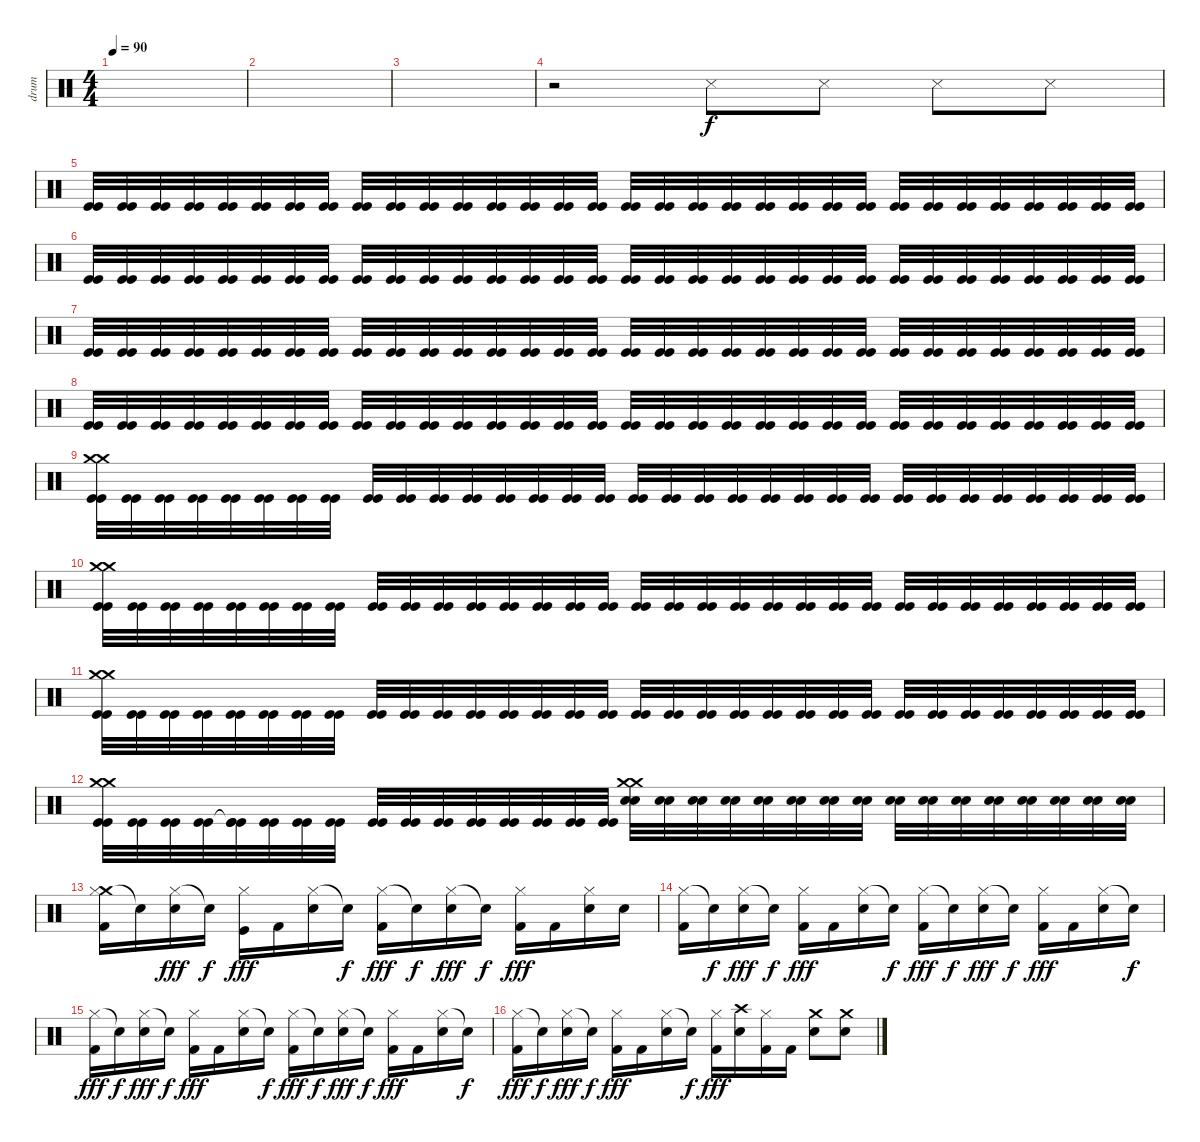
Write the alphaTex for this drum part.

\track ("drum" "drum") {instrument percussion}
\staff {score}
\articulation defaults
\ts (4 4)
\tempo 90
\clef neutral
\ks c
|
|
|
r.2 "Metronome (hit)".8 "Metronome (hit)".8 "Metronome (hit)".8 "Metronome (hit)".8 |
("Kick (hit)" "Kick (hit)").32 ("Kick (hit)" "Kick (hit)").32 ("Kick (hit)" "Kick (hit)").32 ("Kick (hit)" "Kick (hit)").32 ("Kick (hit)" "Kick (hit)").32 ("Kick (hit)" "Kick (hit)").32 ("Kick (hit)" "Kick (hit)").32 ("Kick (hit)" "Kick (hit)").32 ("Kick (hit)" "Kick (hit)").32 ("Kick (hit)" "Kick (hit)").32 ("Kick (hit)" "Kick (hit)").32 ("Kick (hit)" "Kick (hit)").32 ("Kick (hit)" "Kick (hit)").32 ("Kick (hit)" "Kick (hit)").32 ("Kick (hit)" "Kick (hit)").32 ("Kick (hit)" "Kick (hit)").32 ("Kick (hit)" "Kick (hit)").32 ("Kick (hit)" "Kick (hit)").32 ("Kick (hit)" "Kick (hit)").32 ("Kick (hit)" "Kick (hit)").32 ("Kick (hit)" "Kick (hit)").32 ("Kick (hit)" "Kick (hit)").32 ("Kick (hit)" "Kick (hit)").32 ("Kick (hit)" "Kick (hit)").32 ("Kick (hit)" "Kick (hit)").32 ("Kick (hit)" "Kick (hit)").32 ("Kick (hit)" "Kick (hit)").32 ("Kick (hit)" "Kick (hit)").32 ("Kick (hit)" "Kick (hit)").32 ("Kick (hit)" "Kick (hit)").32 ("Kick (hit)" "Kick (hit)").32 ("Kick (hit)" "Kick (hit)").32 |
("Kick (hit)" "Kick (hit)").32 ("Kick (hit)" "Kick (hit)").32 ("Kick (hit)" "Kick (hit)").32 ("Kick (hit)" "Kick (hit)").32 ("Kick (hit)" "Kick (hit)").32 ("Kick (hit)" "Kick (hit)").32 ("Kick (hit)" "Kick (hit)").32 ("Kick (hit)" "Kick (hit)").32 ("Kick (hit)" "Kick (hit)").32 ("Kick (hit)" "Kick (hit)").32 ("Kick (hit)" "Kick (hit)").32 ("Kick (hit)" "Kick (hit)").32 ("Kick (hit)" "Kick (hit)").32 ("Kick (hit)" "Kick (hit)").32 ("Kick (hit)" "Kick (hit)").32 ("Kick (hit)" "Kick (hit)").32 ("Kick (hit)" "Kick (hit)").32 ("Kick (hit)" "Kick (hit)").32 ("Kick (hit)" "Kick (hit)").32 ("Kick (hit)" "Kick (hit)").32 ("Kick (hit)" "Kick (hit)").32 ("Kick (hit)" "Kick (hit)").32 ("Kick (hit)" "Kick (hit)").32 ("Kick (hit)" "Kick (hit)").32 ("Kick (hit)" "Kick (hit)").32 ("Kick (hit)" "Kick (hit)").32 ("Kick (hit)" "Kick (hit)").32 ("Kick (hit)" "Kick (hit)").32 ("Kick (hit)" "Kick (hit)").32 ("Kick (hit)" "Kick (hit)").32 ("Kick (hit)" "Kick (hit)").32 ("Kick (hit)" "Kick (hit)").32 |
("Kick (hit)" "Kick (hit)").32 ("Kick (hit)" "Kick (hit)").32 ("Kick (hit)" "Kick (hit)").32 ("Kick (hit)" "Kick (hit)").32 ("Kick (hit)" "Kick (hit)").32 ("Kick (hit)" "Kick (hit)").32 ("Kick (hit)" "Kick (hit)").32 ("Kick (hit)" "Kick (hit)").32 ("Kick (hit)" "Kick (hit)").32 ("Kick (hit)" "Kick (hit)").32 ("Kick (hit)" "Kick (hit)").32 ("Kick (hit)" "Kick (hit)").32 ("Kick (hit)" "Kick (hit)").32 ("Kick (hit)" "Kick (hit)").32 ("Kick (hit)" "Kick (hit)").32 ("Kick (hit)" "Kick (hit)").32 ("Kick (hit)" "Kick (hit)").32 ("Kick (hit)" "Kick (hit)").32 ("Kick (hit)" "Kick (hit)").32 ("Kick (hit)" "Kick (hit)").32 ("Kick (hit)" "Kick (hit)").32 ("Kick (hit)" "Kick (hit)").32 ("Kick (hit)" "Kick (hit)").32 ("Kick (hit)" "Kick (hit)").32 ("Kick (hit)" "Kick (hit)").32 ("Kick (hit)" "Kick (hit)").32 ("Kick (hit)" "Kick (hit)").32 ("Kick (hit)" "Kick (hit)").32 ("Kick (hit)" "Kick (hit)").32 ("Kick (hit)" "Kick (hit)").32 ("Kick (hit)" "Kick (hit)").32 ("Kick (hit)" "Kick (hit)").32 |
("Kick (hit)" "Kick (hit)").32 ("Kick (hit)" "Kick (hit)").32 ("Kick (hit)" "Kick (hit)").32 ("Kick (hit)" "Kick (hit)").32 ("Kick (hit)" "Kick (hit)").32 ("Kick (hit)" "Kick (hit)").32 ("Kick (hit)" "Kick (hit)").32 ("Kick (hit)" "Kick (hit)").32 ("Kick (hit)" "Kick (hit)").32 ("Kick (hit)" "Kick (hit)").32 ("Kick (hit)" "Kick (hit)").32 ("Kick (hit)" "Kick (hit)").32 ("Kick (hit)" "Kick (hit)").32 ("Kick (hit)" "Kick (hit)").32 ("Kick (hit)" "Kick (hit)").32 ("Kick (hit)" "Kick (hit)").32 ("Kick (hit)" "Kick (hit)").32 ("Kick (hit)" "Kick (hit)").32 ("Kick (hit)" "Kick (hit)").32 ("Kick (hit)" "Kick (hit)").32 ("Kick (hit)" "Kick (hit)").32 ("Kick (hit)" "Kick (hit)").32 ("Kick (hit)" "Kick (hit)").32 ("Kick (hit)" "Kick (hit)").32 ("Kick (hit)" "Kick (hit)").32 ("Kick (hit)" "Kick (hit)").32 ("Kick (hit)" "Kick (hit)").32 ("Kick (hit)" "Kick (hit)").32 ("Kick (hit)" "Kick (hit)").32 ("Kick (hit)" "Kick (hit)").32 ("Kick (hit)" "Kick (hit)").32 ("Kick (hit)" "Kick (hit)").32 |
("Crash medium (hit)" "Crash medium (hit)" "Kick (hit)" "Kick (hit)").32 ("Kick (hit)" "Kick (hit)").32 ("Kick (hit)" "Kick (hit)").32 ("Kick (hit)" "Kick (hit)").32 ("Kick (hit)" "Kick (hit)").32 ("Kick (hit)" "Kick (hit)").32 ("Kick (hit)" "Kick (hit)").32 ("Kick (hit)" "Kick (hit)").32 ("Kick (hit)" "Kick (hit)").32 ("Kick (hit)" "Kick (hit)").32 ("Kick (hit)" "Kick (hit)").32 ("Kick (hit)" "Kick (hit)").32 ("Kick (hit)" "Kick (hit)").32 ("Kick (hit)" "Kick (hit)").32 ("Kick (hit)" "Kick (hit)").32 ("Kick (hit)" "Kick (hit)").32 ("Kick (hit)" "Kick (hit)").32 ("Kick (hit)" "Kick (hit)").32 ("Kick (hit)" "Kick (hit)").32 ("Kick (hit)" "Kick (hit)").32 ("Kick (hit)" "Kick (hit)").32 ("Kick (hit)" "Kick (hit)").32 ("Kick (hit)" "Kick (hit)").32 ("Kick (hit)" "Kick (hit)").32 ("Kick (hit)" "Kick (hit)").32 ("Kick (hit)" "Kick (hit)").32 ("Kick (hit)" "Kick (hit)").32 ("Kick (hit)" "Kick (hit)").32 ("Kick (hit)" "Kick (hit)").32 ("Kick (hit)" "Kick (hit)").32 ("Kick (hit)" "Kick (hit)").32 ("Kick (hit)" "Kick (hit)").32 |
("Crash medium (hit)" "Crash medium (hit)" "Kick (hit)" "Kick (hit)").32 ("Kick (hit)" "Kick (hit)").32 ("Kick (hit)" "Kick (hit)").32 ("Kick (hit)" "Kick (hit)").32 ("Kick (hit)" "Kick (hit)").32 ("Kick (hit)" "Kick (hit)").32 ("Kick (hit)" "Kick (hit)").32 ("Kick (hit)" "Kick (hit)").32 ("Kick (hit)" "Kick (hit)").32 ("Kick (hit)" "Kick (hit)").32 ("Kick (hit)" "Kick (hit)").32 ("Kick (hit)" "Kick (hit)").32 ("Kick (hit)" "Kick (hit)").32 ("Kick (hit)" "Kick (hit)").32 ("Kick (hit)" "Kick (hit)").32 ("Kick (hit)" "Kick (hit)").32 ("Kick (hit)" "Kick (hit)").32 ("Kick (hit)" "Kick (hit)").32 ("Kick (hit)" "Kick (hit)").32 ("Kick (hit)" "Kick (hit)").32 ("Kick (hit)" "Kick (hit)").32 ("Kick (hit)" "Kick (hit)").32 ("Kick (hit)" "Kick (hit)").32 ("Kick (hit)" "Kick (hit)").32 ("Kick (hit)" "Kick (hit)").32 ("Kick (hit)" "Kick (hit)").32 ("Kick (hit)" "Kick (hit)").32 ("Kick (hit)" "Kick (hit)").32 ("Kick (hit)" "Kick (hit)").32 ("Kick (hit)" "Kick (hit)").32 ("Kick (hit)" "Kick (hit)").32 ("Kick (hit)" "Kick (hit)").32 |
("Crash medium (hit)" "Crash medium (hit)" "Kick (hit)" "Kick (hit)").32 ("Kick (hit)" "Kick (hit)").32 ("Kick (hit)" "Kick (hit)").32 ("Kick (hit)" "Kick (hit)").32 ("Kick (hit)" "Kick (hit)").32 ("Kick (hit)" "Kick (hit)").32 ("Kick (hit)" "Kick (hit)").32 ("Kick (hit)" "Kick (hit)").32 ("Kick (hit)" "Kick (hit)").32 ("Kick (hit)" "Kick (hit)").32 ("Kick (hit)" "Kick (hit)").32 ("Kick (hit)" "Kick (hit)").32 ("Kick (hit)" "Kick (hit)").32 ("Kick (hit)" "Kick (hit)").32 ("Kick (hit)" "Kick (hit)").32 ("Kick (hit)" "Kick (hit)").32 ("Kick (hit)" "Kick (hit)").32 ("Kick (hit)" "Kick (hit)").32 ("Kick (hit)" "Kick (hit)").32 ("Kick (hit)" "Kick (hit)").32 ("Kick (hit)" "Kick (hit)").32 ("Kick (hit)" "Kick (hit)").32 ("Kick (hit)" "Kick (hit)").32 ("Kick (hit)" "Kick (hit)").32 ("Kick (hit)" "Kick (hit)").32 ("Kick (hit)" "Kick (hit)").32 ("Kick (hit)" "Kick (hit)").32 ("Kick (hit)" "Kick (hit)").32 ("Kick (hit)" "Kick (hit)").32 ("Kick (hit)" "Kick (hit)").32 ("Kick (hit)" "Kick (hit)").32 ("Kick (hit)" "Kick (hit)").32 |
("Crash medium (hit)" "Crash medium (hit)" "Kick (hit)" "Kick (hit)").32 ("Kick (hit)" "Kick (hit)").32 ("Kick (hit)" "Kick (hit)").32 ("Kick (hit)" "Kick (hit)").32 ("Kick (hit)"{t} "Kick (hit)" "Kick (hit)").32 ("Kick (hit)" "Kick (hit)").32 ("Kick (hit)" "Kick (hit)").32 ("Kick (hit)" "Kick (hit)").32 ("Kick (hit)" "Kick (hit)").32 ("Kick (hit)" "Kick (hit)").32 ("Kick (hit)" "Kick (hit)").32 ("Kick (hit)" "Kick (hit)").32 ("Kick (hit)" "Kick (hit)").32 ("Kick (hit)" "Kick (hit)").32 ("Kick (hit)" "Kick (hit)").32 ("Kick (hit)" "Kick (hit)").32 ("Crash medium (hit)" "Crash medium (hit)" "Electric Snare (hit)" "Electric Snare (hit)").32 ("Electric Snare (hit)" "Electric Snare (hit)").32 ("Electric Snare (hit)" "Electric Snare (hit)").32 ("Electric Snare (hit)" "Electric Snare (hit)").32 ("Electric Snare (hit)" "Electric Snare (hit)").32 ("Electric Snare (hit)" "Electric Snare (hit)").32 ("Electric Snare (hit)" "Electric Snare (hit)").32 ("Electric Snare (hit)" "Electric Snare (hit)").32 ("Electric Snare (hit)" "Electric Snare (hit)").32 ("Electric Snare (hit)" "Electric Snare (hit)").32 ("Electric Snare (hit)" "Electric Snare (hit)").32 ("Electric Snare (hit)" "Electric Snare (hit)").32 ("Electric Snare (hit)" "Electric Snare (hit)").32 ("Electric Snare (hit)" "Electric Snare (hit)").32 ("Electric Snare (hit)" "Electric Snare (hit)").32 ("Electric Snare (hit)" "Electric Snare (hit)").32 |
("Crash medium (hit)" "Hi-Hat (closed)" "Kick (hit) 2").16 "Snare (hit)"{t}.16{dy f} ("Hi-Hat (closed)" "Electric Snare (hit)").16{dy fff} "Snare (hit)"{t}.16{dy f} ("Hi-Hat (closed)" "Kick (hit)").16{dy fff} "Kick (hit) 2".16 ("Hi-Hat (closed)" "Electric Snare (hit)").16 "Snare (hit)"{t}.16{dy f} ("Hi-Hat (closed)" "Kick (hit) 2").16{dy fff} "Snare (hit)"{t}.16{dy f} ("Hi-Hat (closed)" "Electric Snare (hit)").16{dy fff} "Snare (hit)"{t}.16{dy f} ("Hi-Hat (closed)" "Kick (hit) 2").16{dy fff} "Kick (hit) 2".16 ("Hi-Hat (closed)" "Electric Snare (hit)").16 "Electric Snare (hit)".16 |
("Hi-Hat (closed)" "Kick (hit) 2").16 "Snare (hit)"{t}.16{dy f} ("Hi-Hat (closed)" "Electric Snare (hit)").16{dy fff} "Snare (hit)"{t}.16{dy f} ("Hi-Hat (closed)" "Kick (hit) 2").16{dy fff} "Kick (hit) 2".16 ("Hi-Hat (closed)" "Electric Snare (hit)").16 "Snare (hit)"{t}.16{dy f} ("Hi-Hat (closed)" "Kick (hit) 2").16{dy fff} "Snare (hit)"{t}.16{dy f} ("Hi-Hat (closed)" "Electric Snare (hit)").16{dy fff} "Snare (hit)"{t}.16{dy f} ("Hi-Hat (closed)" "Kick (hit) 2").16{dy fff} "Kick (hit) 2".16 ("Hi-Hat (closed)" "Electric Snare (hit)").16 "Snare (hit)"{t}.16{dy f} |
("Hi-Hat (closed)" "Kick (hit) 2").16{dy fff} "Snare (hit)"{t}.16{dy f} ("Hi-Hat (closed)" "Electric Snare (hit)").16{dy fff} "Snare (hit)"{t}.16{dy f} ("Hi-Hat (closed)" "Kick (hit) 2").16{dy fff} "Kick (hit) 2".16 ("Hi-Hat (closed)" "Electric Snare (hit)").16 "Snare (hit)"{t}.16{dy f} ("Hi-Hat (closed)" "Kick (hit) 2").16{dy fff} "Snare (hit)"{t}.16{dy f} ("Hi-Hat (closed)" "Electric Snare (hit)").16{dy fff} "Snare (hit)"{t}.16{dy f} ("Hi-Hat (closed)" "Kick (hit) 2").16{dy fff} "Kick (hit) 2".16 ("Hi-Hat (closed)" "Electric Snare (hit)").16 "Snare (hit)"{t}.16{dy f} |
("Hi-Hat (closed)" "Kick (hit) 2").16{dy fff} "Snare (hit)"{t}.16{dy f} ("Hi-Hat (closed)" "Electric Snare (hit)").16{dy fff} "Snare (hit)"{t}.16{dy f} ("Hi-Hat (closed)" "Kick (hit) 2").16{dy fff} "Kick (hit) 2".16 ("Hi-Hat (closed)" "Electric Snare (hit)").16 "Snare (hit)"{t}.16{dy f} ("Hi-Hat (closed)" "Kick (hit) 2").16{dy fff} ("Crash high (hit)" "Electric Snare (hit)").16 ("Hi-Hat (closed)" "Kick (hit) 2").16 "Kick (hit) 2".16 ("Crash medium (hit)" "Electric Snare (hit)").8 ("Crash medium (hit)" "Electric Snare (hit)").8
